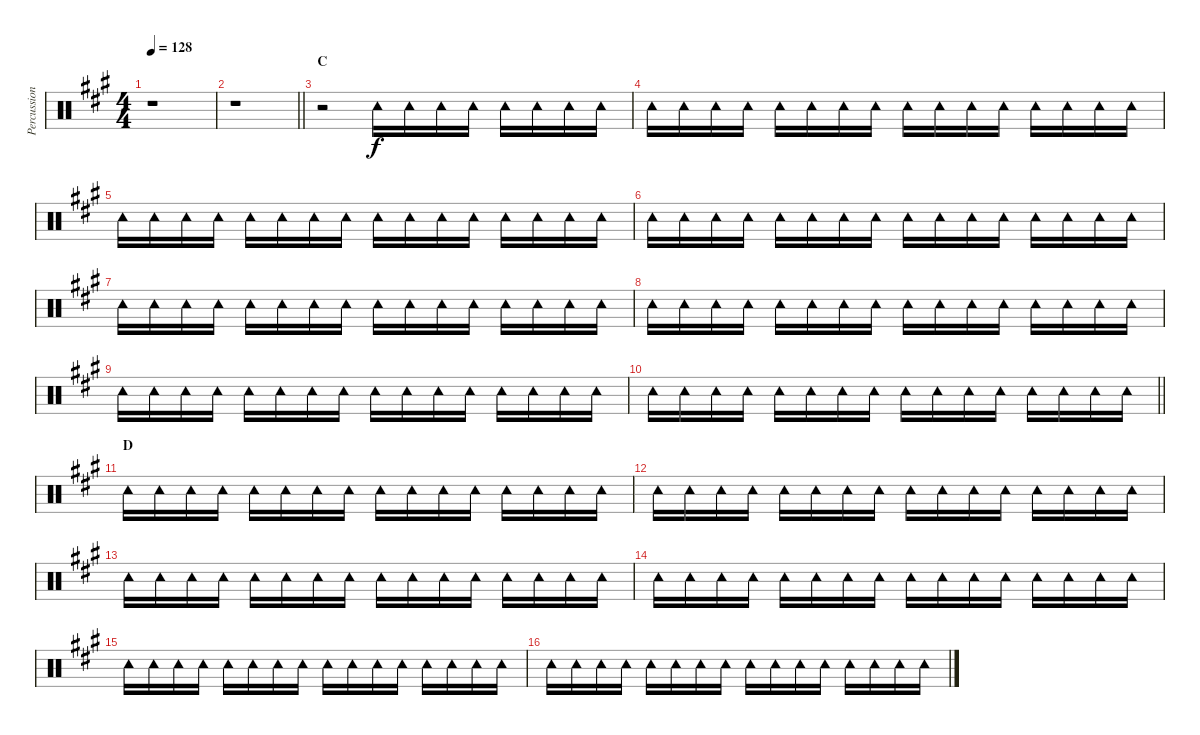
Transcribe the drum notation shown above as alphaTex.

\track ("Percussion" "Percussion") {instrument percussion}
\staff {score}
\articulation defaults
\ts (4 4)
\tempo 128
\clef neutral
\ks a
r.1{dy f} |
\barLineRight lightlight
r.1 |
\section ("" "C")
r.2 "Tambourine (hit)".16 "Tambourine (hit)".16 "Tambourine (hit)".16 "Tambourine (hit)".16 "Tambourine (hit)".16 "Tambourine (hit)".16 "Tambourine (hit)".16 "Tambourine (hit)".16 |
"Tambourine (hit)".16 "Tambourine (hit)".16 "Tambourine (hit)".16 "Tambourine (hit)".16 "Tambourine (hit)".16 "Tambourine (hit)".16 "Tambourine (hit)".16 "Tambourine (hit)".16 "Tambourine (hit)".16 "Tambourine (hit)".16 "Tambourine (hit)".16 "Tambourine (hit)".16 "Tambourine (hit)".16 "Tambourine (hit)".16 "Tambourine (hit)".16 "Tambourine (hit)".16 |
"Tambourine (hit)".16 "Tambourine (hit)".16 "Tambourine (hit)".16 "Tambourine (hit)".16 "Tambourine (hit)".16 "Tambourine (hit)".16 "Tambourine (hit)".16 "Tambourine (hit)".16 "Tambourine (hit)".16 "Tambourine (hit)".16 "Tambourine (hit)".16 "Tambourine (hit)".16 "Tambourine (hit)".16 "Tambourine (hit)".16 "Tambourine (hit)".16 "Tambourine (hit)".16 |
"Tambourine (hit)".16 "Tambourine (hit)".16 "Tambourine (hit)".16 "Tambourine (hit)".16 "Tambourine (hit)".16 "Tambourine (hit)".16 "Tambourine (hit)".16 "Tambourine (hit)".16 "Tambourine (hit)".16 "Tambourine (hit)".16 "Tambourine (hit)".16 "Tambourine (hit)".16 "Tambourine (hit)".16 "Tambourine (hit)".16 "Tambourine (hit)".16 "Tambourine (hit)".16 |
"Tambourine (hit)".16 "Tambourine (hit)".16 "Tambourine (hit)".16 "Tambourine (hit)".16 "Tambourine (hit)".16 "Tambourine (hit)".16 "Tambourine (hit)".16 "Tambourine (hit)".16 "Tambourine (hit)".16 "Tambourine (hit)".16 "Tambourine (hit)".16 "Tambourine (hit)".16 "Tambourine (hit)".16 "Tambourine (hit)".16 "Tambourine (hit)".16 "Tambourine (hit)".16 |
"Tambourine (hit)".16 "Tambourine (hit)".16 "Tambourine (hit)".16 "Tambourine (hit)".16 "Tambourine (hit)".16 "Tambourine (hit)".16 "Tambourine (hit)".16 "Tambourine (hit)".16 "Tambourine (hit)".16 "Tambourine (hit)".16 "Tambourine (hit)".16 "Tambourine (hit)".16 "Tambourine (hit)".16 "Tambourine (hit)".16 "Tambourine (hit)".16 "Tambourine (hit)".16 |
"Tambourine (hit)".16 "Tambourine (hit)".16 "Tambourine (hit)".16 "Tambourine (hit)".16 "Tambourine (hit)".16 "Tambourine (hit)".16 "Tambourine (hit)".16 "Tambourine (hit)".16 "Tambourine (hit)".16 "Tambourine (hit)".16 "Tambourine (hit)".16 "Tambourine (hit)".16 "Tambourine (hit)".16 "Tambourine (hit)".16 "Tambourine (hit)".16 "Tambourine (hit)".16 |
\barLineRight lightlight "Tambourine (hit)".16 "Tambourine (hit)".16 "Tambourine (hit)".16 "Tambourine (hit)".16 "Tambourine (hit)".16 "Tambourine (hit)".16 "Tambourine (hit)".16 "Tambourine (hit)".16 "Tambourine (hit)".16 "Tambourine (hit)".16 "Tambourine (hit)".16 "Tambourine (hit)".16 "Tambourine (hit)".16 "Tambourine (hit)".16 "Tambourine (hit)".16 "Tambourine (hit)".16
|
\section ("" "D")
"Tambourine (hit)".16 "Tambourine (hit)".16 "Tambourine (hit)".16 "Tambourine (hit)".16 "Tambourine (hit)".16 "Tambourine (hit)".16 "Tambourine (hit)".16 "Tambourine (hit)".16 "Tambourine (hit)".16 "Tambourine (hit)".16 "Tambourine (hit)".16 "Tambourine (hit)".16 "Tambourine (hit)".16 "Tambourine (hit)".16 "Tambourine (hit)".16 "Tambourine (hit)".16 |
"Tambourine (hit)".16 "Tambourine (hit)".16 "Tambourine (hit)".16 "Tambourine (hit)".16 "Tambourine (hit)".16 "Tambourine (hit)".16 "Tambourine (hit)".16 "Tambourine (hit)".16 "Tambourine (hit)".16 "Tambourine (hit)".16 "Tambourine (hit)".16 "Tambourine (hit)".16 "Tambourine (hit)".16 "Tambourine (hit)".16 "Tambourine (hit)".16 "Tambourine (hit)".16 |
"Tambourine (hit)".16 "Tambourine (hit)".16 "Tambourine (hit)".16 "Tambourine (hit)".16 "Tambourine (hit)".16 "Tambourine (hit)".16 "Tambourine (hit)".16 "Tambourine (hit)".16 "Tambourine (hit)".16 "Tambourine (hit)".16 "Tambourine (hit)".16 "Tambourine (hit)".16 "Tambourine (hit)".16 "Tambourine (hit)".16 "Tambourine (hit)".16 "Tambourine (hit)".16 |
"Tambourine (hit)".16 "Tambourine (hit)".16 "Tambourine (hit)".16 "Tambourine (hit)".16 "Tambourine (hit)".16 "Tambourine (hit)".16 "Tambourine (hit)".16 "Tambourine (hit)".16 "Tambourine (hit)".16 "Tambourine (hit)".16 "Tambourine (hit)".16 "Tambourine (hit)".16 "Tambourine (hit)".16 "Tambourine (hit)".16 "Tambourine (hit)".16 "Tambourine (hit)".16 |
"Tambourine (hit)".16 "Tambourine (hit)".16 "Tambourine (hit)".16 "Tambourine (hit)".16 "Tambourine (hit)".16 "Tambourine (hit)".16 "Tambourine (hit)".16 "Tambourine (hit)".16 "Tambourine (hit)".16 "Tambourine (hit)".16 "Tambourine (hit)".16 "Tambourine (hit)".16 "Tambourine (hit)".16 "Tambourine (hit)".16 "Tambourine (hit)".16 "Tambourine (hit)".16 |
"Tambourine (hit)".16 "Tambourine (hit)".16 "Tambourine (hit)".16 "Tambourine (hit)".16 "Tambourine (hit)".16 "Tambourine (hit)".16 "Tambourine (hit)".16 "Tambourine (hit)".16 "Tambourine (hit)".16 "Tambourine (hit)".16 "Tambourine (hit)".16 "Tambourine (hit)".16 "Tambourine (hit)".16 "Tambourine (hit)".16 "Tambourine (hit)".16 "Tambourine (hit)".16
